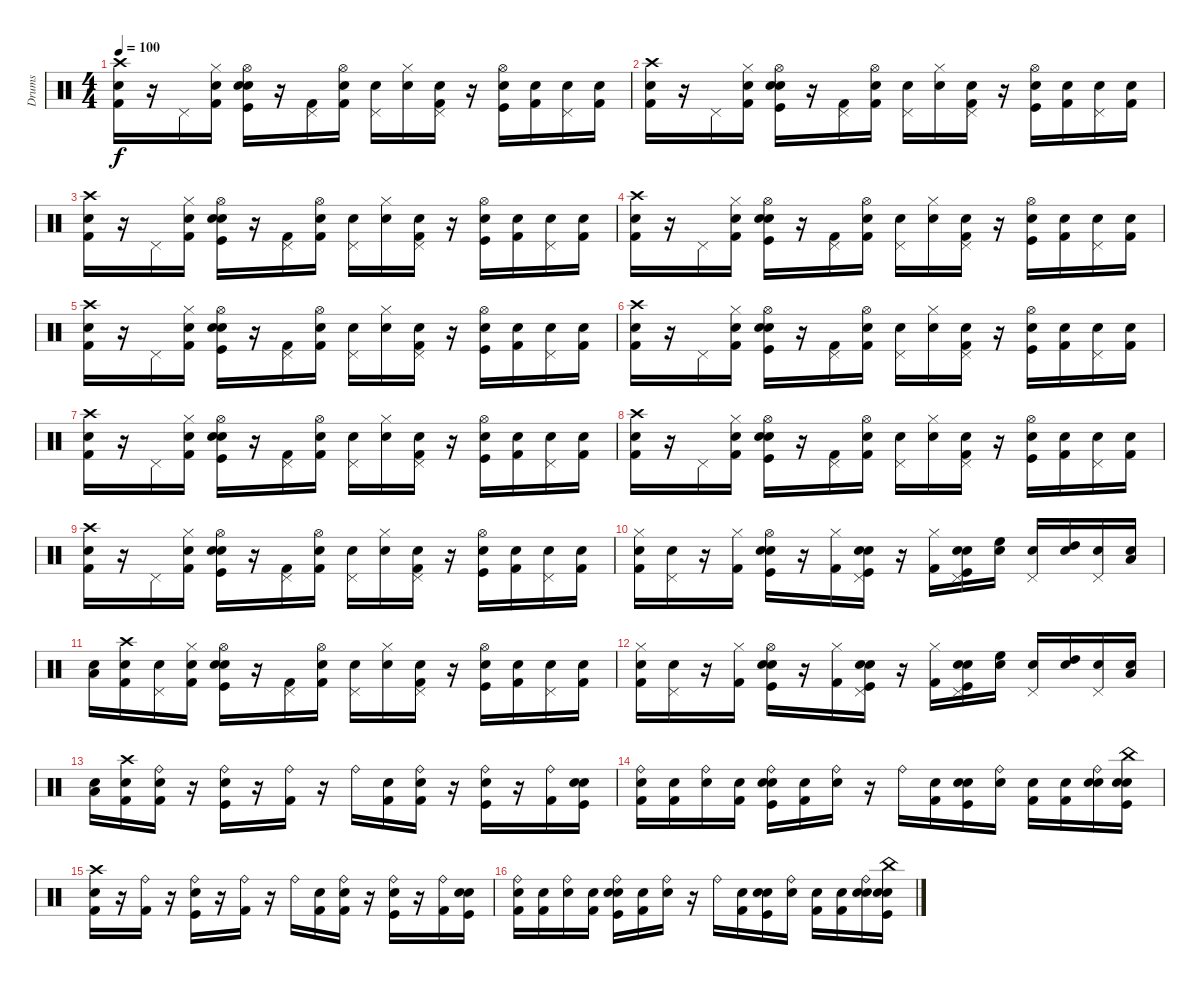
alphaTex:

\track ("Drums" "Drums") {instrument percussion}
\staff {score}
\articulation defaults
\ts (4 4)
\tempo 100
\clef neutral
\ks c
("Snare (hit)" "Crash high (hit)" "Kick (hit) 2").16{dy f} r.16 "Pedal Hi-Hat (hit)".16 ("Snare (hit)" "Kick (hit) 2" "Hi-Hat (closed)").16 ("Snare (hit)" "Kick (hit)" "Electric Snare (hit)" "Hi-Hat (open)").16 r.16 ("Kick (hit) 2" "Pedal Hi-Hat (hit)").16 ("Snare (hit)" "Kick (hit) 2" "Hi-Hat (open)").16 ("Snare (hit)" "Pedal Hi-Hat (hit)").16 ("Snare (hit)" "Hi-Hat (closed)").16 ("Snare (hit)" "Kick (hit) 2" "Pedal Hi-Hat (hit)").16 r.16 ("Hi-Hat (open)" "Kick (hit)" "Electric Snare (hit)").16 ("Snare (hit)" "Kick (hit) 2").16 ("Snare (hit)" "Pedal Hi-Hat (hit)").16 ("Snare (hit)" "Kick (hit) 2").16 |
("Snare (hit)" "Crash high (hit)" "Kick (hit) 2").16 r.16 "Pedal Hi-Hat (hit)".16 ("Snare (hit)" "Kick (hit) 2" "Hi-Hat (closed)").16 ("Snare (hit)" "Kick (hit)" "Electric Snare (hit)" "Hi-Hat (open)").16 r.16 ("Kick (hit) 2" "Pedal Hi-Hat (hit)").16 ("Snare (hit)" "Kick (hit) 2" "Hi-Hat (open)").16 ("Snare (hit)" "Pedal Hi-Hat (hit)").16 ("Snare (hit)" "Hi-Hat (closed)").16 ("Snare (hit)" "Kick (hit) 2" "Pedal Hi-Hat (hit)").16 r.16 ("Hi-Hat (open)" "Kick (hit)" "Electric Snare (hit)").16 ("Snare (hit)" "Kick (hit) 2").16 ("Snare (hit)" "Pedal Hi-Hat (hit)").16 ("Snare (hit)" "Kick (hit) 2").16 |
("Snare (hit)" "Crash high (hit)" "Kick (hit) 2").16 r.16 "Pedal Hi-Hat (hit)".16 ("Snare (hit)" "Kick (hit) 2" "Hi-Hat (closed)").16 ("Snare (hit)" "Kick (hit)" "Electric Snare (hit)" "Hi-Hat (open)").16 r.16 ("Kick (hit) 2" "Pedal Hi-Hat (hit)").16 ("Snare (hit)" "Kick (hit) 2" "Hi-Hat (open)").16 ("Snare (hit)" "Pedal Hi-Hat (hit)").16 ("Snare (hit)" "Hi-Hat (closed)").16 ("Snare (hit)" "Kick (hit) 2" "Pedal Hi-Hat (hit)").16 r.16 ("Hi-Hat (open)" "Kick (hit)" "Electric Snare (hit)").16 ("Snare (hit)" "Kick (hit) 2").16 ("Snare (hit)" "Pedal Hi-Hat (hit)").16 ("Snare (hit)" "Kick (hit) 2").16 |
("Snare (hit)" "Crash high (hit)" "Kick (hit) 2").16 r.16 "Pedal Hi-Hat (hit)".16 ("Snare (hit)" "Kick (hit) 2" "Hi-Hat (closed)").16 ("Snare (hit)" "Kick (hit)" "Electric Snare (hit)" "Hi-Hat (open)").16 r.16 ("Kick (hit) 2" "Pedal Hi-Hat (hit)").16 ("Snare (hit)" "Kick (hit) 2" "Hi-Hat (open)").16 ("Snare (hit)" "Pedal Hi-Hat (hit)").16 ("Snare (hit)" "Hi-Hat (closed)").16 ("Snare (hit)" "Kick (hit) 2" "Pedal Hi-Hat (hit)").16 r.16 ("Hi-Hat (open)" "Kick (hit)" "Electric Snare (hit)").16 ("Snare (hit)" "Kick (hit) 2").16 ("Snare (hit)" "Pedal Hi-Hat (hit)").16 ("Snare (hit)" "Kick (hit) 2").16 |
("Snare (hit)" "Crash high (hit)" "Kick (hit) 2").16 r.16 "Pedal Hi-Hat (hit)".16 ("Snare (hit)" "Kick (hit) 2" "Hi-Hat (closed)").16 ("Snare (hit)" "Kick (hit)" "Electric Snare (hit)" "Hi-Hat (open)").16 r.16 ("Kick (hit) 2" "Pedal Hi-Hat (hit)").16 ("Snare (hit)" "Kick (hit) 2" "Hi-Hat (open)").16 ("Snare (hit)" "Pedal Hi-Hat (hit)").16 ("Snare (hit)" "Hi-Hat (closed)").16 ("Snare (hit)" "Kick (hit) 2" "Pedal Hi-Hat (hit)").16 r.16 ("Hi-Hat (open)" "Kick (hit)" "Electric Snare (hit)").16 ("Snare (hit)" "Kick (hit) 2").16 ("Snare (hit)" "Pedal Hi-Hat (hit)").16 ("Snare (hit)" "Kick (hit) 2").16 |
("Snare (hit)" "Crash high (hit)" "Kick (hit) 2").16 r.16 "Pedal Hi-Hat (hit)".16 ("Snare (hit)" "Kick (hit) 2" "Hi-Hat (closed)").16 ("Snare (hit)" "Kick (hit)" "Electric Snare (hit)" "Hi-Hat (open)").16 r.16 ("Kick (hit) 2" "Pedal Hi-Hat (hit)").16 ("Snare (hit)" "Kick (hit) 2" "Hi-Hat (open)").16 ("Snare (hit)" "Pedal Hi-Hat (hit)").16 ("Snare (hit)" "Hi-Hat (closed)").16 ("Snare (hit)" "Kick (hit) 2" "Pedal Hi-Hat (hit)").16 r.16 ("Hi-Hat (open)" "Kick (hit)" "Electric Snare (hit)").16 ("Snare (hit)" "Kick (hit) 2").16 ("Snare (hit)" "Pedal Hi-Hat (hit)").16 ("Snare (hit)" "Kick (hit) 2").16 |
("Snare (hit)" "Crash high (hit)" "Kick (hit) 2").16 r.16 "Pedal Hi-Hat (hit)".16 ("Snare (hit)" "Kick (hit) 2" "Hi-Hat (closed)").16 ("Snare (hit)" "Kick (hit)" "Electric Snare (hit)" "Hi-Hat (open)").16 r.16 ("Kick (hit) 2" "Pedal Hi-Hat (hit)").16 ("Snare (hit)" "Kick (hit) 2" "Hi-Hat (open)").16 ("Snare (hit)" "Pedal Hi-Hat (hit)").16 ("Snare (hit)" "Hi-Hat (closed)").16 ("Snare (hit)" "Kick (hit) 2" "Pedal Hi-Hat (hit)").16 r.16 ("Hi-Hat (open)" "Kick (hit)" "Electric Snare (hit)").16 ("Snare (hit)" "Kick (hit) 2").16 ("Snare (hit)" "Pedal Hi-Hat (hit)").16 ("Snare (hit)" "Kick (hit) 2").16 |
("Snare (hit)" "Crash high (hit)" "Kick (hit) 2").16 r.16 "Pedal Hi-Hat (hit)".16 ("Snare (hit)" "Kick (hit) 2" "Hi-Hat (closed)").16 ("Snare (hit)" "Kick (hit)" "Electric Snare (hit)" "Hi-Hat (open)").16 r.16 ("Kick (hit) 2" "Pedal Hi-Hat (hit)").16 ("Snare (hit)" "Kick (hit) 2" "Hi-Hat (open)").16 ("Snare (hit)" "Pedal Hi-Hat (hit)").16 ("Snare (hit)" "Hi-Hat (closed)").16 ("Snare (hit)" "Kick (hit) 2" "Pedal Hi-Hat (hit)").16 r.16 ("Hi-Hat (open)" "Kick (hit)" "Electric Snare (hit)").16 ("Snare (hit)" "Kick (hit) 2").16 ("Snare (hit)" "Pedal Hi-Hat (hit)").16 ("Snare (hit)" "Kick (hit) 2").16 |
("Snare (hit)" "Crash high (hit)" "Kick (hit) 2").16 r.16 "Pedal Hi-Hat (hit)".16 ("Snare (hit)" "Kick (hit) 2" "Hi-Hat (closed)").16 ("Snare (hit)" "Kick (hit)" "Electric Snare (hit)" "Hi-Hat (open)").16 r.16 ("Kick (hit) 2" "Pedal Hi-Hat (hit)").16 ("Snare (hit)" "Kick (hit) 2" "Hi-Hat (open)").16 ("Snare (hit)" "Pedal Hi-Hat (hit)").16 ("Snare (hit)" "Hi-Hat (closed)").16 ("Snare (hit)" "Kick (hit) 2" "Pedal Hi-Hat (hit)").16 r.16 ("Hi-Hat (open)" "Kick (hit)" "Electric Snare (hit)").16 ("Snare (hit)" "Kick (hit) 2").16 ("Snare (hit)" "Pedal Hi-Hat (hit)").16 ("Snare (hit)" "Kick (hit) 2").16 |
("Snare (hit)" "Hi-Hat (closed)" "Kick (hit) 2").16 ("Snare (hit)" "Pedal Hi-Hat (hit)").16 r.16 ("Kick (hit) 2" "Hi-Hat (closed)").16 ("Snare (hit)" "Hi-Hat (open)" "Kick (hit)" "Electric Snare (hit)").16 r.16 ("Hi-Hat (closed)" "Kick (hit) 2").16 ("Snare (hit)" "Kick (hit)" "Electric Snare (hit)" "Pedal Hi-Hat (hit)").16 r.16 ("Hi-Hat (closed)" "Kick (hit) 2").16 ("Snare (hit)" "Pedal Hi-Hat (hit)" "Kick (hit)" "Electric Snare (hit)").16 ("Snare (hit)" "High Floor Tom (hit)").16 ("Snare (hit)" "Pedal Hi-Hat (hit)").16 ("Snare (hit)" "High Tom (hit)").16 ("Snare (hit)" "Pedal Hi-Hat (hit)").16 ("Snare (hit)" "Low Tom (hit)").16 |
("Snare (hit)" "Low Floor Tom (hit)").16 ("Snare (hit)" "Crash high (hit)" "Kick (hit) 2").16 ("Snare (hit)" "Pedal Hi-Hat (hit)").16 ("Snare (hit)" "Kick (hit) 2" "Hi-Hat (closed)").16 ("Snare (hit)" "Kick (hit)" "Electric Snare (hit)" "Hi-Hat (open)").16 r.16 ("Kick (hit) 2" "Pedal Hi-Hat (hit)").16 ("Snare (hit)" "Kick (hit) 2" "Hi-Hat (open)").16 ("Snare (hit)" "Pedal Hi-Hat (hit)").16 ("Snare (hit)" "Hi-Hat (closed)").16 ("Snare (hit)" "Kick (hit) 2" "Pedal Hi-Hat (hit)").16 r.16 ("Hi-Hat (open)" "Kick (hit)" "Electric Snare (hit)").16 ("Snare (hit)" "Kick (hit) 2").16 ("Snare (hit)" "Pedal Hi-Hat (hit)").16 ("Snare (hit)" "Kick (hit) 2").16 |
("Snare (hit)" "Hi-Hat (closed)" "Kick (hit) 2").16 ("Snare (hit)" "Pedal Hi-Hat (hit)").16 r.16 ("Kick (hit) 2" "Hi-Hat (closed)").16 ("Snare (hit)" "Hi-Hat (open)" "Kick (hit)" "Electric Snare (hit)").16 r.16 ("Hi-Hat (closed)" "Kick (hit) 2").16 ("Snare (hit)" "Kick (hit)" "Electric Snare (hit)" "Pedal Hi-Hat (hit)").16 r.16 ("Hi-Hat (closed)" "Kick (hit) 2").16 ("Snare (hit)" "Pedal Hi-Hat (hit)" "Kick (hit)" "Electric Snare (hit)").16 ("Snare (hit)" "High Floor Tom (hit)").16 ("Snare (hit)" "Pedal Hi-Hat (hit)").16 ("Snare (hit)" "High Tom (hit)").16 ("Snare (hit)" "Pedal Hi-Hat (hit)").16 ("Snare (hit)" "Low Tom (hit)").16 |
("Snare (hit)" "Low Floor Tom (hit)").16 ("Snare (hit)" "Kick (hit) 2" "Crash high (hit)").16 ("Snare (hit)" "Ride (bell)" "Kick (hit) 2").16 r.16 ("Ride (bell)" "Kick (hit)" "Electric Snare (hit)").16 r.16 ("Ride (bell)" "Kick (hit) 2").16 r.16 "Ride (bell)".16 ("Snare (hit)" "Kick (hit) 2").16 ("Snare (hit)" "Kick (hit) 2" "Ride (bell)").16 r.16 ("Ride (bell)" "Kick (hit)" "Electric Snare (hit)").16 r.16 ("Ride (bell)" "Kick (hit) 2").16 ("Snare (hit)" "Kick (hit)" "Electric Snare (hit)").16 |
("Snare (hit)" "Kick (hit) 2" "Ride (bell)").16 ("Snare (hit)" "Kick (hit) 2").16 ("Snare (hit)" "Ride (bell)").16 ("Snare (hit)" "Kick (hit) 2").16 ("Snare (hit)" "Ride (bell)" "Kick (hit)" "Electric Snare (hit)").16 ("Snare (hit)" "Kick (hit) 2").16 ("Snare (hit)" "Ride (bell)").16 r.16 "Ride (bell)".16 ("Snare (hit)" "Kick (hit) 2").16 ("Snare (hit)" "Kick (hit)" "Electric Snare (hit)").16 ("Snare (hit)" "Ride (bell)").16 ("Snare (hit)" "Kick (hit) 2").16 ("Snare (hit)" "Kick (hit) 2").16 ("Snare (hit)" "Snare (hit) 2" "Ride (bell)").16 ("Snare (hit)" "Kick (hit)" "Electric Snare (hit)" "China (hit)").16 |
("Snare (hit)" "Kick (hit) 2" "Crash high (hit)").16 r.16 ("Ride (bell)" "Kick (hit) 2").16 r.16 ("Ride (bell)" "Kick (hit)" "Electric Snare (hit)").16 r.16 ("Ride (bell)" "Kick (hit) 2").16 r.16 "Ride (bell)".16 ("Snare (hit)" "Kick (hit) 2").16 ("Snare (hit)" "Kick (hit) 2" "Ride (bell)").16 r.16 ("Ride (bell)" "Kick (hit)" "Electric Snare (hit)").16 r.16 ("Ride (bell)" "Kick (hit) 2").16 ("Snare (hit)" "Kick (hit)" "Electric Snare (hit)").16 |
("Snare (hit)" "Kick (hit) 2" "Ride (bell)").16 ("Snare (hit)" "Kick (hit) 2").16 ("Snare (hit)" "Ride (bell)").16 ("Snare (hit)" "Kick (hit) 2").16 ("Snare (hit)" "Ride (bell)" "Kick (hit)" "Electric Snare (hit)").16 ("Snare (hit)" "Kick (hit) 2").16 ("Snare (hit)" "Ride (bell)").16 r.16 "Ride (bell)".16 ("Snare (hit)" "Kick (hit) 2").16 ("Snare (hit)" "Kick (hit)" "Electric Snare (hit)").16 ("Snare (hit)" "Ride (bell)").16 ("Snare (hit)" "Kick (hit) 2").16 ("Snare (hit)" "Kick (hit) 2").16 ("Snare (hit)" "Snare (hit) 2" "Ride (bell)").16 ("Snare (hit)" "Kick (hit)" "Electric Snare (hit)" "China (hit)").16
